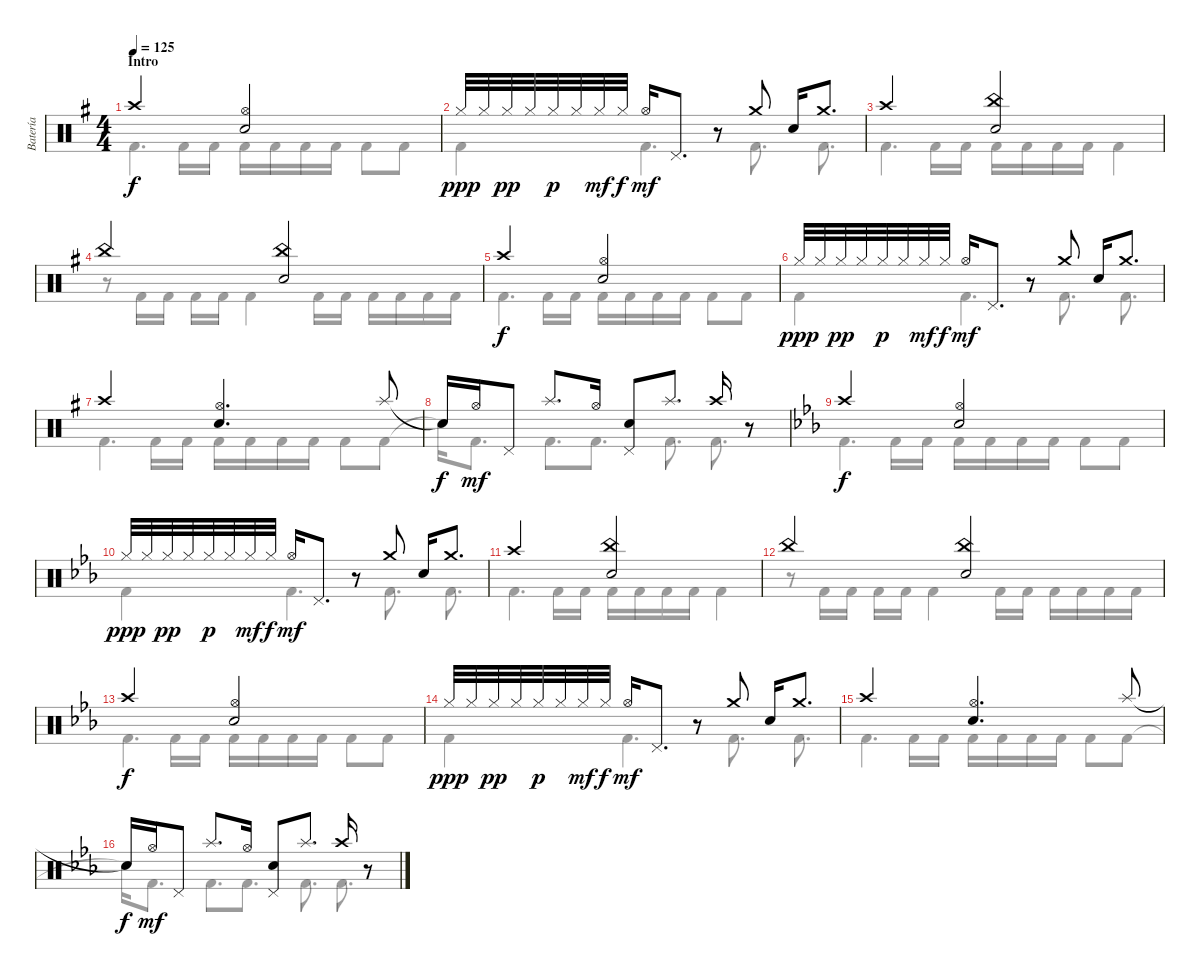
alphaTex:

\track ("Batería" "Batería") {instrument percussion}
\staff {score}
\articulation defaults
\voice
\ts (4 4)
\section ("" "Intro")
\tempo 125
\clef neutral
\ks g "Crash high (hit)".2{dy f}
("Hi-Hat (open)" "Snare (hit) 2").2 |
"Hi-Hat (closed)".32{dy ppp} "Hi-Hat (closed)".32 "Hi-Hat (closed)".32{dy pp} "Hi-Hat (closed)".32 "Hi-Hat (closed)".32{dy p} "Hi-Hat (closed)".32 "Hi-Hat (closed)".32{dy mf} "Hi-Hat (closed)".32{dy f} "Hi-Hat (open)".16{dy mf} "Pedal Hi-Hat (hit)".8{d} r.8 "Crash medium (hit)".8 "Snare (hit) 2".16 "Crash medium (hit)".8{d} |
"Crash high (hit)".2 ("China (hit)" "Snare (hit) 2").2 |
"China (hit)".2 ("China (hit)" "Snare (hit) 2").2 |
"Crash high (hit)".2{dy f} ("Hi-Hat (open)" "Snare (hit) 2").2 |
"Hi-Hat (closed)".32{dy ppp} "Hi-Hat (closed)".32 "Hi-Hat (closed)".32{dy pp} "Hi-Hat (closed)".32 "Hi-Hat (closed)".32{dy p} "Hi-Hat (closed)".32 "Hi-Hat (closed)".32{dy mf} "Hi-Hat (closed)".32{dy f} "Hi-Hat (open)".16{dy mf} "Pedal Hi-Hat (hit)".8{d} r.8 "Crash medium (hit)".8 "Snare (hit) 2".16 "Crash medium (hit)".8{d} |
"Crash high (hit)".2 ("Hi-Hat (open)" "Snare (hit) 2").4{d} "Splash (hit)".8 |
"Snare (hit)"{t}.16{dy f} "Hi-Hat (open)".16{dy mf} "Pedal Hi-Hat (hit)".8 "Splash (hit)".8{d} "Hi-Hat (open)".16 ("Snare (hit) 2" "Pedal Hi-Hat (hit)").8 "Splash (hit)".8{d} "Crash high (hit)".16 r.8{volume 0} |
\ks eb "Crash high (hit)".2{dy f volume 13}
("Hi-Hat (open)" "Snare (hit) 2").2 |
"Hi-Hat (closed)".32{dy ppp} "Hi-Hat (closed)".32 "Hi-Hat (closed)".32{dy pp} "Hi-Hat (closed)".32 "Hi-Hat (closed)".32{dy p} "Hi-Hat (closed)".32 "Hi-Hat (closed)".32{dy mf} "Hi-Hat (closed)".32{dy f} "Hi-Hat (open)".16{dy mf} "Pedal Hi-Hat (hit)".8{d} r.8 "Crash medium (hit)".8 "Snare (hit) 2".16 "Crash medium (hit)".8{d} |
"Crash high (hit)".2 ("China (hit)" "Snare (hit) 2").2 |
"China (hit)".2 ("China (hit)" "Snare (hit) 2").2 |
"Crash high (hit)".2{dy f} ("Hi-Hat (open)" "Snare (hit) 2").2 |
"Hi-Hat (closed)".32{dy ppp} "Hi-Hat (closed)".32 "Hi-Hat (closed)".32{dy pp} "Hi-Hat (closed)".32 "Hi-Hat (closed)".32{dy p} "Hi-Hat (closed)".32 "Hi-Hat (closed)".32{dy mf} "Hi-Hat (closed)".32{dy f} "Hi-Hat (open)".16{dy mf} "Pedal Hi-Hat (hit)".8{d} r.8 "Crash medium (hit)".8 "Snare (hit) 2".16 "Crash medium (hit)".8{d} |
"Crash high (hit)".2 ("Hi-Hat (open)" "Snare (hit) 2").4{d} "Splash (hit)".8 |
"Snare (hit)"{t}.16{dy f} "Hi-Hat (open)".16{dy mf} "Pedal Hi-Hat (hit)".8 "Splash (hit)".8{d} "Hi-Hat (open)".16 ("Snare (hit) 2" "Pedal Hi-Hat (hit)").8 "Splash (hit)".8{d} "Crash high (hit)".16 r.8{volume 0}
\voice
\clef neutral
\ottava regular
\simile none
\ks g "Kick (hit) 2".4{d dy f} "Kick (hit) 2".16 "Kick (hit) 2".16 "Kick (hit) 2".16 "Kick (hit) 2".16 "Kick (hit) 2".16 "Kick (hit) 2".16 "Kick (hit) 2".8 "Kick (hit) 2".8
|
"Kick (hit) 2".4 "Kick (hit) 2".4{d} "Kick (hit) 2".8{d} "Kick (hit) 2".8{d} |
"Kick (hit) 2".4{d} "Kick (hit) 2".16 "Kick (hit) 2".16 "Kick (hit) 2".16 "Kick (hit) 2".16 "Kick (hit) 2".16 "Kick (hit) 2".16 "Kick (hit) 2".4 |
r.8 "Kick (hit) 2".16 "Kick (hit) 2".16 "Kick (hit) 2".16 "Kick (hit) 2".16 "Kick (hit) 2".4 "Kick (hit) 2".16 "Kick (hit) 2".16 "Kick (hit) 2".16 "Kick (hit) 2".16 "Kick (hit) 2".16 "Kick (hit) 2".16 |
"Kick (hit) 2".4{d} "Kick (hit) 2".16 "Kick (hit) 2".16 "Kick (hit) 2".16 "Kick (hit) 2".16 "Kick (hit) 2".16 "Kick (hit) 2".16 "Kick (hit) 2".8 "Kick (hit) 2".8 |
"Kick (hit) 2".4 "Kick (hit) 2".4{d} "Kick (hit) 2".8{d} "Kick (hit) 2".8{d} |
"Kick (hit) 2".4{d} "Kick (hit) 2".16 "Kick (hit) 2".16 "Kick (hit) 2".16 "Kick (hit) 2".16 "Kick (hit) 2".16 "Kick (hit) 2".16 "Kick (hit) 2".8 "Kick (hit) 2".8 |
"Snare (hit)"{t}.16 "Kick (hit) 2".8{d} "Kick (hit) 2".8{d} "Kick (hit) 2".8{d} "Kick (hit) 2".8{d} "Kick (hit) 2".8{d} |
\ks eb "Kick (hit) 2".4{d} "Kick (hit) 2".16 "Kick (hit) 2".16 "Kick (hit) 2".16 "Kick (hit) 2".16 "Kick (hit) 2".16 "Kick (hit) 2".16 "Kick (hit) 2".8 "Kick (hit) 2".8
|
"Kick (hit) 2".4 "Kick (hit) 2".4{d} "Kick (hit) 2".8{d} "Kick (hit) 2".8{d} |
"Kick (hit) 2".4{d} "Kick (hit) 2".16 "Kick (hit) 2".16 "Kick (hit) 2".16 "Kick (hit) 2".16 "Kick (hit) 2".16 "Kick (hit) 2".16 "Kick (hit) 2".4 |
r.8 "Kick (hit) 2".16 "Kick (hit) 2".16 "Kick (hit) 2".16 "Kick (hit) 2".16 "Kick (hit) 2".4 "Kick (hit) 2".16 "Kick (hit) 2".16 "Kick (hit) 2".16 "Kick (hit) 2".16 "Kick (hit) 2".16 "Kick (hit) 2".16 |
"Kick (hit) 2".4{d} "Kick (hit) 2".16 "Kick (hit) 2".16 "Kick (hit) 2".16 "Kick (hit) 2".16 "Kick (hit) 2".16 "Kick (hit) 2".16 "Kick (hit) 2".8 "Kick (hit) 2".8 |
"Kick (hit) 2".4 "Kick (hit) 2".4{d} "Kick (hit) 2".8{d} "Kick (hit) 2".8{d} |
"Kick (hit) 2".4{d} "Kick (hit) 2".16 "Kick (hit) 2".16 "Kick (hit) 2".16 "Kick (hit) 2".16 "Kick (hit) 2".16 "Kick (hit) 2".16 "Kick (hit) 2".8 "Kick (hit) 2".8 |
"Snare (hit)"{t}.16 "Kick (hit) 2".8{d} "Kick (hit) 2".8{d} "Kick (hit) 2".8{d} "Kick (hit) 2".8{d} "Kick (hit) 2".8{d}
